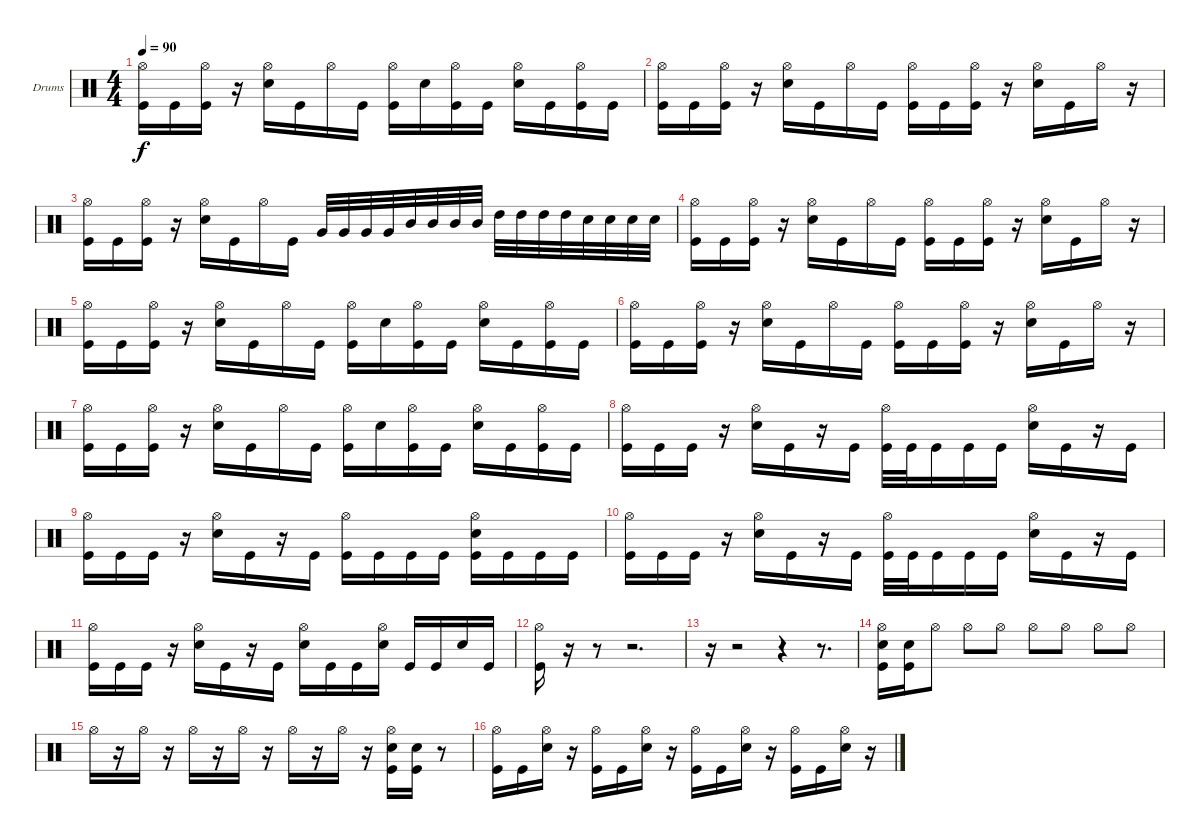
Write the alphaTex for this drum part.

\bracketExtendMode groupsimilarinstruments
\firstSystemTrackNameOrientation horizontal
\otherSystemsTrackNameOrientation horizontal
\track ("Drumkit" "Drums") {instrument percussion}
\staff {score}
\articulation defaults
\ts (4 4)
\tempo 90
\clef neutral
\ks c
("Hi-Hat (open)" "Kick (hit)").16{dy f} "Kick (hit)".16 ("Hi-Hat (open)" "Kick (hit)").16 r.16 ("Hi-Hat (open)" "Snare (hit) 2").16 "Kick (hit)".16 "Hi-Hat (open)".16 "Kick (hit)".16 ("Hi-Hat (open)" "Kick (hit)").16 "Snare (hit) 2".16 ("Hi-Hat (open)" "Kick (hit)").16 "Kick (hit)".16 ("Hi-Hat (open)" "Snare (hit) 2").16 "Kick (hit)".16 ("Hi-Hat (open)" "Kick (hit)").16 "Kick (hit)".16 |
("Hi-Hat (open)" "Kick (hit)").16 "Kick (hit)".16 ("Hi-Hat (open)" "Kick (hit)").16 r.16 ("Hi-Hat (open)" "Snare (hit) 2").16 "Kick (hit)".16 "Hi-Hat (open)".16 "Kick (hit)".16 ("Hi-Hat (open)" "Kick (hit)").16 "Kick (hit)".16 ("Hi-Hat (open)" "Kick (hit)").16 r.16 ("Hi-Hat (open)" "Snare (hit) 2").16 "Kick (hit)".16 "Hi-Hat (open)".16 r.16 |
("Hi-Hat (open)" "Kick (hit)").16 "Kick (hit)".16 ("Hi-Hat (open)" "Kick (hit)").16 r.16 ("Hi-Hat (open)" "Snare (hit) 2").16 "Kick (hit)".16 "Hi-Hat (open)".16 "Kick (hit)".16 "Very Low Tom (hit)".32 "Very Low Tom (hit)".32 "Very Low Tom (hit)".32 "Very Low Tom (hit)".32 "Mid Tom (hit)".32 "Mid Tom (hit)".32 "Mid Tom (hit)".32 "Mid Tom (hit)".32 "High Tom (hit)".32 "High Tom (hit)".32 "High Tom (hit)".32 "High Tom (hit)".32 "Snare (hit) 2".32 "Snare (hit) 2".32 "Snare (hit) 2".32 "Snare (hit) 2".32 |
("Hi-Hat (open)" "Kick (hit)").16 "Kick (hit)".16 ("Hi-Hat (open)" "Kick (hit)").16 r.16 ("Hi-Hat (open)" "Snare (hit) 2").16 "Kick (hit)".16 "Hi-Hat (open)".16 "Kick (hit)".16 ("Hi-Hat (open)" "Kick (hit)").16 "Kick (hit)".16 ("Hi-Hat (open)" "Kick (hit)").16 r.16 ("Hi-Hat (open)" "Snare (hit) 2").16 "Kick (hit)".16 "Hi-Hat (open)".16 r.16 |
("Hi-Hat (open)" "Kick (hit)").16 "Kick (hit)".16 ("Hi-Hat (open)" "Kick (hit)").16 r.16 ("Hi-Hat (open)" "Snare (hit) 2").16 "Kick (hit)".16 "Hi-Hat (open)".16 "Kick (hit)".16 ("Hi-Hat (open)" "Kick (hit)").16 "Snare (hit) 2".16 ("Hi-Hat (open)" "Kick (hit)").16 "Kick (hit)".16 ("Hi-Hat (open)" "Snare (hit) 2").16 "Kick (hit)".16 ("Hi-Hat (open)" "Kick (hit)").16 "Kick (hit)".16 |
("Hi-Hat (open)" "Kick (hit)").16 "Kick (hit)".16 ("Hi-Hat (open)" "Kick (hit)").16 r.16 ("Hi-Hat (open)" "Snare (hit) 2").16 "Kick (hit)".16 "Hi-Hat (open)".16 "Kick (hit)".16 ("Hi-Hat (open)" "Kick (hit)").16 "Kick (hit)".16 ("Hi-Hat (open)" "Kick (hit)").16 r.16 ("Hi-Hat (open)" "Snare (hit) 2").16 "Kick (hit)".16 "Hi-Hat (open)".16 r.16 |
("Hi-Hat (open)" "Kick (hit)").16 "Kick (hit)".16 ("Hi-Hat (open)" "Kick (hit)").16 r.16 ("Hi-Hat (open)" "Snare (hit) 2").16 "Kick (hit)".16 "Hi-Hat (open)".16 "Kick (hit)".16 ("Hi-Hat (open)" "Kick (hit)").16 "Snare (hit) 2".16 ("Hi-Hat (open)" "Kick (hit)").16 "Kick (hit)".16 ("Hi-Hat (open)" "Snare (hit) 2").16 "Kick (hit)".16 ("Hi-Hat (open)" "Kick (hit)").16 "Kick (hit)".16 |
("Hi-Hat (open)" "Kick (hit)").16 "Kick (hit)".16 "Kick (hit)".16 r.16 ("Hi-Hat (open)" "Snare (hit) 2").16 "Kick (hit)".16 r.16 "Kick (hit)".16 ("Hi-Hat (open)" "Kick (hit)").32 "Kick (hit)".32 "Kick (hit)".16 "Kick (hit)".16 "Kick (hit)".16 ("Hi-Hat (open)" "Snare (hit) 2").16 "Kick (hit)".16 r.16 "Kick (hit)".16 |
("Hi-Hat (open)" "Kick (hit)").16 "Kick (hit)".16 "Kick (hit)".16 r.16 ("Hi-Hat (open)" "Snare (hit) 2").16 "Kick (hit)".16 r.16 "Kick (hit)".16 ("Hi-Hat (open)" "Kick (hit)").16 "Kick (hit)".16 "Kick (hit)".16 "Kick (hit)".16 ("Hi-Hat (open)" "Snare (hit) 2" "Kick (hit)").16 "Kick (hit)".16 "Kick (hit)".16 "Kick (hit)".16 |
("Hi-Hat (open)" "Kick (hit)").16 "Kick (hit)".16 "Kick (hit)".16 r.16 ("Hi-Hat (open)" "Snare (hit) 2").16 "Kick (hit)".16 r.16 "Kick (hit)".16 ("Hi-Hat (open)" "Kick (hit)").32 "Kick (hit)".32 "Kick (hit)".16 "Kick (hit)".16 "Kick (hit)".16 ("Hi-Hat (open)" "Snare (hit) 2").16 "Kick (hit)".16 r.16 "Kick (hit)".16 |
("Hi-Hat (open)" "Kick (hit)").16 "Kick (hit)".16 "Kick (hit)".16 r.16 ("Hi-Hat (open)" "Snare (hit) 2").16 "Kick (hit)".16 r.16 "Kick (hit)".16 ("Hi-Hat (open)" "Snare (hit) 2").16 "Kick (hit)".16 "Kick (hit)".16 ("Hi-Hat (open)" "Snare (hit) 2").16 "Kick (hit)".16 "Kick (hit)".16 "Snare (hit) 2".16 "Kick (hit)".16 |
("Hi-Hat (open)" "Kick (hit)").16 r.16 r.8 r.2{d} |
r.16 r.2 r.4 r.8{d} |
("Hi-Hat (open)" "Snare (hit) 2" "Kick (hit)").16 ("Snare (hit) 2" "Kick (hit)").16 "Hi-Hat (open)".8 "Hi-Hat (open)".8 "Hi-Hat (open)".8 "Hi-Hat (open)".8 "Hi-Hat (open)".8 "Hi-Hat (open)".8 "Hi-Hat (open)".8 |
"Hi-Hat (open)".16 r.16 "Hi-Hat (open)".16 r.16 "Hi-Hat (open)".16 r.16 "Hi-Hat (open)".16 r.16 "Hi-Hat (open)".16 r.16 "Hi-Hat (open)".16 r.16 ("Hi-Hat (open)" "Snare (hit) 2" "Kick (hit)").16 ("Snare (hit) 2" "Kick (hit)").16 r.8 |
("Hi-Hat (open)" "Kick (hit)").16 "Kick (hit)".16 ("Hi-Hat (open)" "Snare (hit) 2").16 r.16 ("Hi-Hat (open)" "Kick (hit)").16 "Kick (hit)".16 ("Hi-Hat (open)" "Snare (hit) 2").16 r.16 ("Hi-Hat (open)" "Kick (hit)").16 "Kick (hit)".16 ("Hi-Hat (open)" "Snare (hit) 2").16 r.16 ("Hi-Hat (open)" "Kick (hit)").16 "Kick (hit)".16 ("Hi-Hat (open)" "Snare (hit) 2").16 r.16
